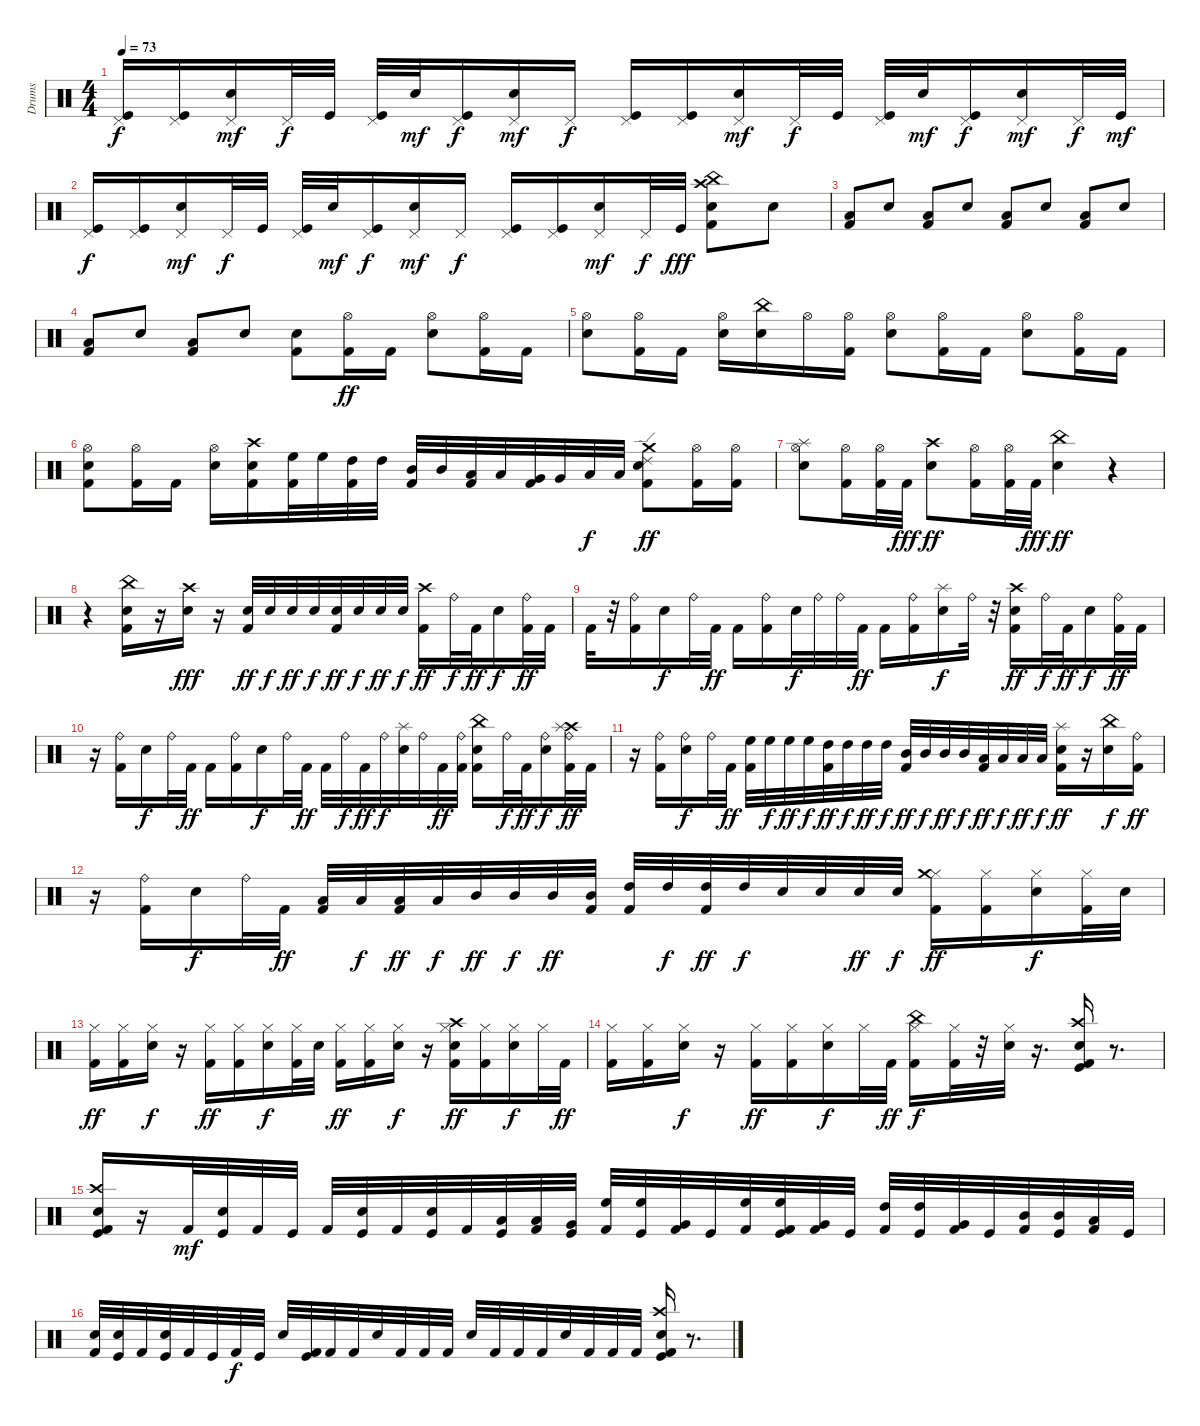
\track ("Drums" "Drums") {instrument percussion}
\staff {score}
\articulation defaults
\ts (4 4)
\tempo 73
\clef neutral
\ks c
("Pedal Hi-Hat (hit)" "Kick (hit)").16{dy f} ("Kick (hit)" "Pedal Hi-Hat (hit)").16 ("Pedal Hi-Hat (hit)" "Electric Snare (hit)").16{dy mf} "Pedal Hi-Hat (hit)".32{dy f} "Kick (hit)".32 ("Pedal Hi-Hat (hit)" "Kick (hit)").32 "Electric Snare (hit)".32{dy mf} ("Kick (hit)" "Pedal Hi-Hat (hit)").16{dy f} ("Pedal Hi-Hat (hit)" "Electric Snare (hit)").16{dy mf} "Pedal Hi-Hat (hit)".16{dy f} ("Pedal Hi-Hat (hit)" "Kick (hit)").16 ("Pedal Hi-Hat (hit)" "Kick (hit)").16 ("Pedal Hi-Hat (hit)" "Electric Snare (hit)").16{dy mf} "Pedal Hi-Hat (hit)".32{dy f} "Kick (hit)".32 ("Pedal Hi-Hat (hit)" "Kick (hit)").32 "Electric Snare (hit)".32{dy mf} ("Pedal Hi-Hat (hit)" "Kick (hit)").16{dy f} ("Pedal Hi-Hat (hit)" "Electric Snare (hit)").16{dy mf} "Pedal Hi-Hat (hit)".32{dy f} "Kick (hit)".32{dy mf} |
("Pedal Hi-Hat (hit)" "Kick (hit)").16{dy f} ("Kick (hit)" "Pedal Hi-Hat (hit)").16 ("Pedal Hi-Hat (hit)" "Electric Snare (hit)").16{dy mf} "Pedal Hi-Hat (hit)".32{dy f} "Kick (hit)".32 ("Pedal Hi-Hat (hit)" "Kick (hit)").32 "Electric Snare (hit)".32{dy mf} ("Kick (hit)" "Pedal Hi-Hat (hit)").16{dy f} ("Pedal Hi-Hat (hit)" "Electric Snare (hit)").16{dy mf} "Pedal Hi-Hat (hit)".16{dy f} ("Pedal Hi-Hat (hit)" "Kick (hit)").16 ("Pedal Hi-Hat (hit)" "Kick (hit)").16 ("Pedal Hi-Hat (hit)" "Electric Snare (hit)").16{dy mf} "Pedal Hi-Hat (hit)".32{dy f} "Kick (hit)".32{dy fff} ("Crash high (hit)" "China (hit)" "Snare (hit) 2" "Kick (hit) 2").8 "Snare (hit) 2".8 |
("Low Floor Tom (hit)" "Kick (hit) 2").8 "Snare (hit) 2".8 ("Low Floor Tom (hit)" "Kick (hit) 2").8 "Snare (hit) 2".8 ("Low Floor Tom (hit)" "Kick (hit) 2").8 "Snare (hit) 2".8 ("Low Floor Tom (hit)" "Kick (hit) 2").8 "Snare (hit) 2".8 |
("Kick (hit) 2" "Low Floor Tom (hit)").8 "Snare (hit) 2".8 ("Kick (hit) 2" "Low Floor Tom (hit)").8 "Snare (hit) 2".8 ("Kick (hit) 2" "Snare (hit) 2").8 ("Hi-Hat (open)" "Kick (hit) 2").16{dy ff} "Kick (hit) 2".16 ("Hi-Hat (open)" "Snare (hit) 2").8 ("Hi-Hat (open)" "Kick (hit) 2").16 "Kick (hit) 2".16 |
("Hi-Hat (open)" "Snare (hit) 2").8 ("Hi-Hat (open)" "Kick (hit) 2").16 "Kick (hit) 2".16 ("Hi-Hat (open)" "Snare (hit) 2").16 ("China (hit)" "Snare (hit) 2").16 "Hi-Hat (open)".16 ("Hi-Hat (open)" "Kick (hit) 2").16 ("Hi-Hat (open)" "Snare (hit) 2").8 ("Hi-Hat (open)" "Kick (hit) 2").16 "Kick (hit) 2".16 ("Hi-Hat (open)" "Snare (hit) 2").8 ("Hi-Hat (open)" "Kick (hit) 2").16 "Kick (hit) 2".16 |
("Snare (hit) 2" "Hi-Hat (open)" "Kick (hit) 2").8 ("Hi-Hat (open)" "Kick (hit) 2").16 "Kick (hit) 2".16 ("Hi-Hat (open)" "Snare (hit) 2").16 ("Snare (hit) 2" "Crash high (hit)" "Kick (hit) 2").16 ("High Floor Tom (hit)" "Kick (hit) 2").32 "High Floor Tom (hit)".32 ("High Tom (hit)" "Kick (hit) 2").32 "High Tom (hit)".32 ("Mid Tom (hit)" "Kick (hit) 2").32 "Mid Tom (hit)".32 ("Low Tom (hit)" "Kick (hit) 2").32 "Low Tom (hit)".32 ("Very Low Tom (hit)" "Kick (hit) 2").32 "Very Low Tom (hit)".32 "Low Floor Tom (hit)".32{dy f} "Low Floor Tom (hit)".32 ("Crash medium (hit)" "Ride (edge) 2" "Snare (hit) 2" "Kick (hit) 2").8{dy ff} ("Hi-Hat (open)" "Kick (hit) 2").16 ("Hi-Hat (open)" "Kick (hit) 2").16 |
("Hi-Hat (open)" "Splash (hit)" "Snare (hit) 2").8 ("Hi-Hat (open)" "Kick (hit) 2").16 ("Hi-Hat (open)" "Kick (hit) 2").32 "Kick (hit) 2".32{dy fff} ("Crash high (hit)" "Snare (hit) 2").8{dy ff} ("Hi-Hat (open)" "Kick (hit) 2").16 ("Hi-Hat (open)" "Kick (hit) 2").32 "Kick (hit) 2".32{dy fff} ("China (hit)" "Snare (hit) 2").4{dy ff} r.4 |
r.4 ("Kick (hit) 2" "China (hit)" "Snare (hit) 2").16 r.16 ("Crash high (hit)" "Snare (hit) 2").16{dy fff} r.16 ("Kick (hit) 2" "Snare (hit) 2").32{dy ff} "Snare (hit) 2".32{dy f} "Snare (hit) 2".32{dy ff} "Snare (hit) 2".32{dy f} ("Kick (hit) 2" "Snare (hit) 2").32{dy ff} "Snare (hit) 2".32{dy f} "Snare (hit) 2".32{dy ff} "Snare (hit) 2".32{dy f} ("Crash high (hit)" "Kick (hit) 2").16{dy ff} "Ride (bell)".32{dy f} "Kick (hit) 2".32{dy ff} "Snare (hit) 2".16{dy f} ("Ride (bell)" "Kick (hit) 2").32{dy ff} "Kick (hit) 2".32 |
"Kick (hit) 2".32 r.32 ("Ride (bell)" "Kick (hit) 2").16 "Snare (hit) 2".16{dy f} "Ride (bell)".32 "Kick (hit) 2".32{dy ff} "Kick (hit) 2".16 ("Ride (bell)" "Kick (hit) 2").16 "Snare (hit) 2".32{dy f} "Ride (bell)".32 "Ride (bell)".32 "Kick (hit) 2".32{dy ff} "Kick (hit) 2".16 ("Ride (bell)" "Kick (hit) 2").16 ("Splash (hit)" "Snare (hit) 2").16{dy f} "Ride (bell)".32 r.32 ("Snare (hit) 2" "Kick (hit) 2" "Crash high (hit)").16{dy ff} "Ride (bell)".32{dy f} "Kick (hit) 2".32{dy ff} "Snare (hit) 2".16{dy f} ("Ride (bell)" "Kick (hit) 2").32{dy ff} "Kick (hit) 2".32 |
r.16 ("Ride (bell)" "Kick (hit) 2").16 "Snare (hit) 2".16{dy f} "Ride (bell)".32 "Kick (hit) 2".32{dy ff} "Kick (hit) 2".16 ("Ride (bell)" "Kick (hit) 2").16 "Snare (hit) 2".16{dy f} "Ride (bell)".32 "Kick (hit) 2".32{dy ff} "Kick (hit) 2".32 "Ride (bell)".32{dy f} "Kick (hit) 2".32{dy ff} "Ride (bell)".32{dy f} ("Snare (hit) 2" "Splash (hit)").32 "Ride (bell)".32 "Kick (hit) 2".32{dy ff} ("Kick (hit) 2" "Ride (bell)").32 ("Snare (hit) 2" "Kick (hit) 2" "China (hit)").16 "Ride (bell)".32{dy f} "Kick (hit) 2".32{dy ff} ("Ride (bell)" "Snare (hit) 2").16{dy f} ("Crash high (hit)" "Ride (bell)" "Kick (hit) 2" "Splash (hit)").32{dy ff} "Kick (hit) 2".32 |
r.16 ("Ride (bell)" "Kick (hit) 2").16 ("Ride (bell)" "Snare (hit) 2").16{dy f} "Ride (bell)".32 "Kick (hit) 2".32{dy ff} ("High Floor Tom (hit)" "Kick (hit) 2").32 "High Floor Tom (hit)".32{dy f} "High Floor Tom (hit)".32{dy ff} "High Floor Tom (hit)".32{dy f} ("Kick (hit) 2" "High Tom (hit)").32{dy ff} "High Tom (hit)".32{dy f} "High Tom (hit)".32{dy ff} "High Tom (hit)".32{dy f} ("Mid Tom (hit)" "Kick (hit) 2").32{dy ff} "Mid Tom (hit)".32{dy f} "Mid Tom (hit)".32{dy ff} "Mid Tom (hit)".32{dy f} ("Kick (hit) 2" "Low Tom (hit)").32{dy ff} "Low Tom (hit)".32{dy f} "Low Tom (hit)".32{dy ff} "Low Tom (hit)".32{dy f} ("Snare (hit) 2" "Kick (hit) 2" "Splash (hit)").16{dy ff} r.16 ("China (hit)" "Snare (hit) 2").16{dy f} ("Ride (bell)" "Kick (hit) 2").16{dy ff} |
r.16 ("Ride (bell)" "Kick (hit) 2").16 "Snare (hit) 2".16{dy f} "Ride (bell)".32 "Kick (hit) 2".32{dy ff} ("Low Tom (hit)" "Kick (hit) 2").32 "Low Tom (hit)".32{dy f} ("Low Tom (hit)" "Kick (hit) 2").32{dy ff} "Low Tom (hit)".32{dy f} "Mid Tom (hit)".32{dy ff} "Mid Tom (hit)".32{dy f} "Mid Tom (hit)".32{dy ff} ("Mid Tom (hit)" "Kick (hit) 2").32 ("High Tom (hit)" "Kick (hit) 2").32 "High Tom (hit)".32{dy f} ("High Tom (hit)" "Kick (hit) 2").32{dy ff} "High Tom (hit)".32{dy f} "Snare (hit) 2".32 "Snare (hit) 2".32 "Snare (hit) 2".32{dy ff} "Snare (hit) 2".32{dy f} ("Hi-Hat (closed)" "Kick (hit) 2" "Crash medium (hit)").16{dy ff} ("Hi-Hat (closed)" "Kick (hit) 2").16 ("Hi-Hat (closed)" "Snare (hit) 2").16{dy f} ("Hi-Hat (closed)" "Kick (hit) 2").32 "Snare (hit) 2".32 |
("Hi-Hat (closed)" "Kick (hit) 2").16{dy ff} ("Hi-Hat (closed)" "Kick (hit) 2").16 ("Hi-Hat (closed)" "Snare (hit) 2").16{dy f} r.16 ("Hi-Hat (closed)" "Kick (hit) 2").16{dy ff} ("Hi-Hat (closed)" "Kick (hit) 2").16 ("Hi-Hat (closed)" "Snare (hit) 2").16{dy f} ("Hi-Hat (closed)" "Kick (hit) 2").32 "Snare (hit) 2".32 ("Hi-Hat (closed)" "Kick (hit) 2").16{dy ff} ("Hi-Hat (closed)" "Kick (hit) 2").16 ("Hi-Hat (closed)" "Snare (hit) 2").16{dy f} r.16 ("Hi-Hat (closed)" "Snare (hit) 2" "Kick (hit) 2" "Crash high (hit)").16{dy ff} ("Hi-Hat (closed)" "Kick (hit) 2").16 ("Hi-Hat (closed)" "Snare (hit) 2").16{dy f} "Hi-Hat (closed)".32 "Kick (hit) 2".32{dy ff} |
("Hi-Hat (closed)" "Kick (hit) 2").16 ("Hi-Hat (closed)" "Kick (hit) 2").16 ("Hi-Hat (closed)" "Snare (hit) 2").16{dy f} r.16 ("Hi-Hat (closed)" "Kick (hit) 2").16{dy ff} ("Hi-Hat (closed)" "Kick (hit) 2").16 ("Hi-Hat (closed)" "Snare (hit) 2").16{dy f} "Hi-Hat (closed)".32 "Kick (hit) 2".32{dy ff} ("Hi-Hat (closed)" "Kick (hit) 2" "China (hit)").16{dy f} ("Hi-Hat (closed)" "Kick (hit) 2").32 r.32 ("Hi-Hat (closed)" "Snare (hit) 2").32 r.16{d} ("Crash high (hit)" "Kick (hit)" "Snare (hit) 2" "Kick (hit) 2").16 r.8{d} |
("Crash high (hit)" "Snare (hit) 2" "Kick (hit) 2" "Kick (hit)").16 r.16 "Kick (hit) 2".32{dy mf} ("Electric Snare (hit)" "Kick (hit)").32 "Kick (hit) 2".32 "Kick (hit)".32 "Kick (hit) 2".32 ("Electric Snare (hit)" "Kick (hit)").32 "Kick (hit) 2".32 ("Electric Snare (hit)" "Kick (hit)").32 "Kick (hit) 2".32 ("Low Floor Tom (hit)" "Kick (hit)").32 ("Low Floor Tom (hit)" "Kick (hit) 2").32 ("Very Low Tom (hit)" "Kick (hit)").32 ("High Floor Tom (hit)" "Kick (hit) 2").32 ("High Floor Tom (hit)" "Kick (hit)").32 ("Very Low Tom (hit)" "Kick (hit) 2").32 "Kick (hit)".32 ("High Floor Tom (hit)" "Kick (hit) 2").32 ("High Floor Tom (hit)" "Kick (hit) 2" "Kick (hit)").32 ("Very Low Tom (hit)" "Kick (hit) 2").32 "Kick (hit)".32 ("High Tom (hit)" "Kick (hit) 2").32 ("High Tom (hit)" "Kick (hit)").32 ("Very Low Tom (hit)" "Kick (hit) 2").32 "Kick (hit)".32 ("Mid Tom (hit)" "Kick (hit) 2").32 ("Mid Tom (hit)" "Kick (hit)").32 ("Low Floor Tom (hit)" "Kick (hit) 2").32 "Kick (hit)".32 |
("Electric Snare (hit)" "Kick (hit) 2").32 ("Electric Snare (hit)" "Kick (hit)").32 "Kick (hit) 2".32 ("Electric Snare (hit)" "Kick (hit)").32 "Kick (hit) 2".32 "Kick (hit)".32 "Kick (hit) 2".32{dy f} "Kick (hit)".32 "Electric Snare (hit)".32 ("Kick (hit) 2" "Kick (hit)").32 "Kick (hit) 2".32 "Kick (hit) 2".32 "Electric Snare (hit)".32 "Kick (hit) 2".32 "Kick (hit) 2".32 "Kick (hit) 2".32 "Electric Snare (hit)".32 "Kick (hit) 2".32 "Kick (hit) 2".32 "Kick (hit) 2".32 "Electric Snare (hit)".32 "Kick (hit) 2".32 "Kick (hit) 2".32 "Kick (hit) 2".32 ("Crash high (hit)" "Snare (hit) 2" "Kick (hit) 2" "Kick (hit)").16 r.8{d}
